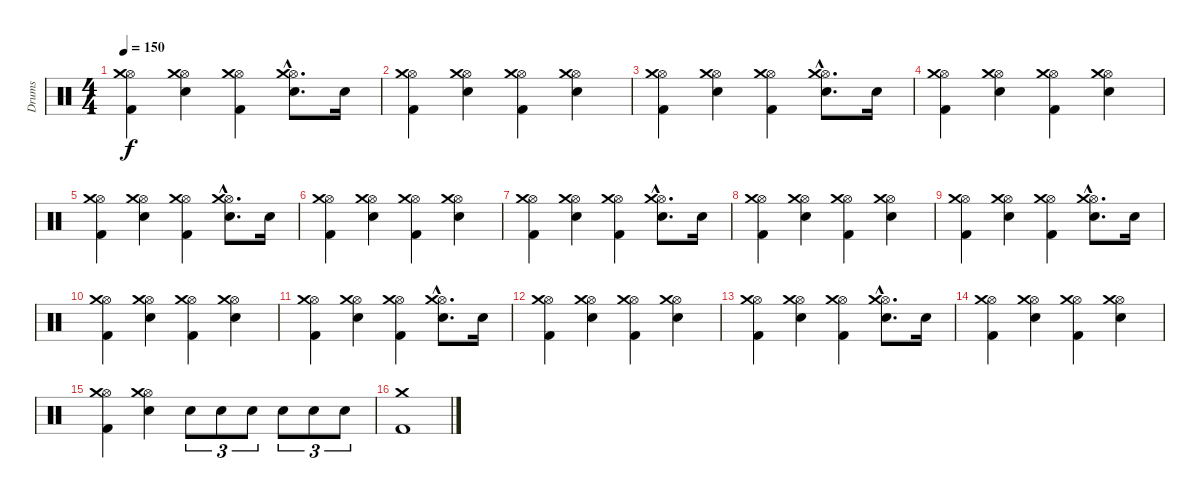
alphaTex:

\track ("Drums" "Drums") {instrument percussion}
\staff {score}
\articulation defaults
\ts (4 4)
\tempo 150
\clef neutral
\ks c
("Hi-Hat (open)" "Crash medium (hit)" "Kick (hit) 2").4{dy f} ("Hi-Hat (open)" "Crash medium (hit)" "Snare (hit) 2").4 ("Hi-Hat (open)" "Crash medium (hit)" "Kick (hit) 2").4 ("Hi-Hat (open)"{hac} "Crash medium (hit)"{hac} "Snare (hit) 2"{hac}).8{d} "Snare (hit) 2".16 |
("Hi-Hat (open)" "Crash medium (hit)" "Kick (hit) 2").4 ("Hi-Hat (open)" "Crash medium (hit)" "Snare (hit) 2").4 ("Hi-Hat (open)" "Crash medium (hit)" "Kick (hit) 2").4 ("Hi-Hat (open)" "Crash medium (hit)" "Snare (hit) 2").4 |
("Hi-Hat (open)" "Crash medium (hit)" "Kick (hit) 2").4 ("Hi-Hat (open)" "Crash medium (hit)" "Snare (hit) 2").4 ("Hi-Hat (open)" "Crash medium (hit)" "Kick (hit) 2").4 ("Hi-Hat (open)"{hac} "Crash medium (hit)"{hac} "Snare (hit) 2"{hac}).8{d} "Snare (hit) 2".16 |
("Hi-Hat (open)" "Crash medium (hit)" "Kick (hit) 2").4 ("Hi-Hat (open)" "Crash medium (hit)" "Snare (hit) 2").4 ("Hi-Hat (open)" "Crash medium (hit)" "Kick (hit) 2").4 ("Hi-Hat (open)" "Crash medium (hit)" "Snare (hit) 2").4 |
("Hi-Hat (open)" "Crash medium (hit)" "Kick (hit) 2").4 ("Hi-Hat (open)" "Crash medium (hit)" "Snare (hit) 2").4 ("Hi-Hat (open)" "Crash medium (hit)" "Kick (hit) 2").4 ("Hi-Hat (open)"{hac} "Crash medium (hit)"{hac} "Snare (hit) 2"{hac}).8{d} "Snare (hit) 2".16 |
("Hi-Hat (open)" "Crash medium (hit)" "Kick (hit) 2").4 ("Hi-Hat (open)" "Crash medium (hit)" "Snare (hit) 2").4 ("Hi-Hat (open)" "Crash medium (hit)" "Kick (hit) 2").4 ("Hi-Hat (open)" "Crash medium (hit)" "Snare (hit) 2").4 |
("Hi-Hat (open)" "Crash medium (hit)" "Kick (hit) 2").4 ("Hi-Hat (open)" "Crash medium (hit)" "Snare (hit) 2").4 ("Hi-Hat (open)" "Crash medium (hit)" "Kick (hit) 2").4 ("Hi-Hat (open)"{hac} "Crash medium (hit)"{hac} "Snare (hit) 2"{hac}).8{d} "Snare (hit) 2".16 |
("Hi-Hat (open)" "Crash medium (hit)" "Kick (hit) 2").4 ("Hi-Hat (open)" "Crash medium (hit)" "Snare (hit) 2").4 ("Hi-Hat (open)" "Crash medium (hit)" "Kick (hit) 2").4 ("Hi-Hat (open)" "Crash medium (hit)" "Snare (hit) 2").4 |
("Hi-Hat (open)" "Crash medium (hit)" "Kick (hit) 2").4 ("Hi-Hat (open)" "Crash medium (hit)" "Snare (hit) 2").4 ("Hi-Hat (open)" "Crash medium (hit)" "Kick (hit) 2").4 ("Hi-Hat (open)"{hac} "Crash medium (hit)"{hac} "Snare (hit) 2"{hac}).8{d} "Snare (hit) 2".16 |
("Hi-Hat (open)" "Crash medium (hit)" "Kick (hit) 2").4 ("Hi-Hat (open)" "Crash medium (hit)" "Snare (hit) 2").4 ("Hi-Hat (open)" "Crash medium (hit)" "Kick (hit) 2").4 ("Hi-Hat (open)" "Crash medium (hit)" "Snare (hit) 2").4 |
("Hi-Hat (open)" "Crash medium (hit)" "Kick (hit) 2").4 ("Hi-Hat (open)" "Crash medium (hit)" "Snare (hit) 2").4 ("Hi-Hat (open)" "Crash medium (hit)" "Kick (hit) 2").4 ("Hi-Hat (open)"{hac} "Crash medium (hit)"{hac} "Snare (hit) 2"{hac}).8{d} "Snare (hit) 2".16 |
("Hi-Hat (open)" "Crash medium (hit)" "Kick (hit) 2").4 ("Hi-Hat (open)" "Crash medium (hit)" "Snare (hit) 2").4 ("Hi-Hat (open)" "Crash medium (hit)" "Kick (hit) 2").4 ("Hi-Hat (open)" "Crash medium (hit)" "Snare (hit) 2").4 |
("Hi-Hat (open)" "Crash medium (hit)" "Kick (hit) 2").4 ("Hi-Hat (open)" "Crash medium (hit)" "Snare (hit) 2").4 ("Hi-Hat (open)" "Crash medium (hit)" "Kick (hit) 2").4 ("Hi-Hat (open)"{hac} "Crash medium (hit)"{hac} "Snare (hit) 2"{hac}).8{d} "Snare (hit) 2".16 |
("Hi-Hat (open)" "Crash medium (hit)" "Kick (hit) 2").4 ("Hi-Hat (open)" "Crash medium (hit)" "Snare (hit) 2").4 ("Hi-Hat (open)" "Crash medium (hit)" "Kick (hit) 2").4 ("Hi-Hat (open)" "Crash medium (hit)" "Snare (hit) 2").4 |
("Hi-Hat (open)" "Crash medium (hit)" "Kick (hit) 2").4 ("Hi-Hat (open)" "Crash medium (hit)" "Snare (hit) 2").4 "Snare (hit) 2".8{tu (3 2)} "Snare (hit) 2".8{tu (3 2)} "Snare (hit) 2".8{tu (3 2)} "Snare (hit) 2".8{tu (3 2)} "Snare (hit) 2".8{tu (3 2)} "Snare (hit) 2".8{tu (3 2)} |
("Crash medium (hit)" "Kick (hit) 2").1
